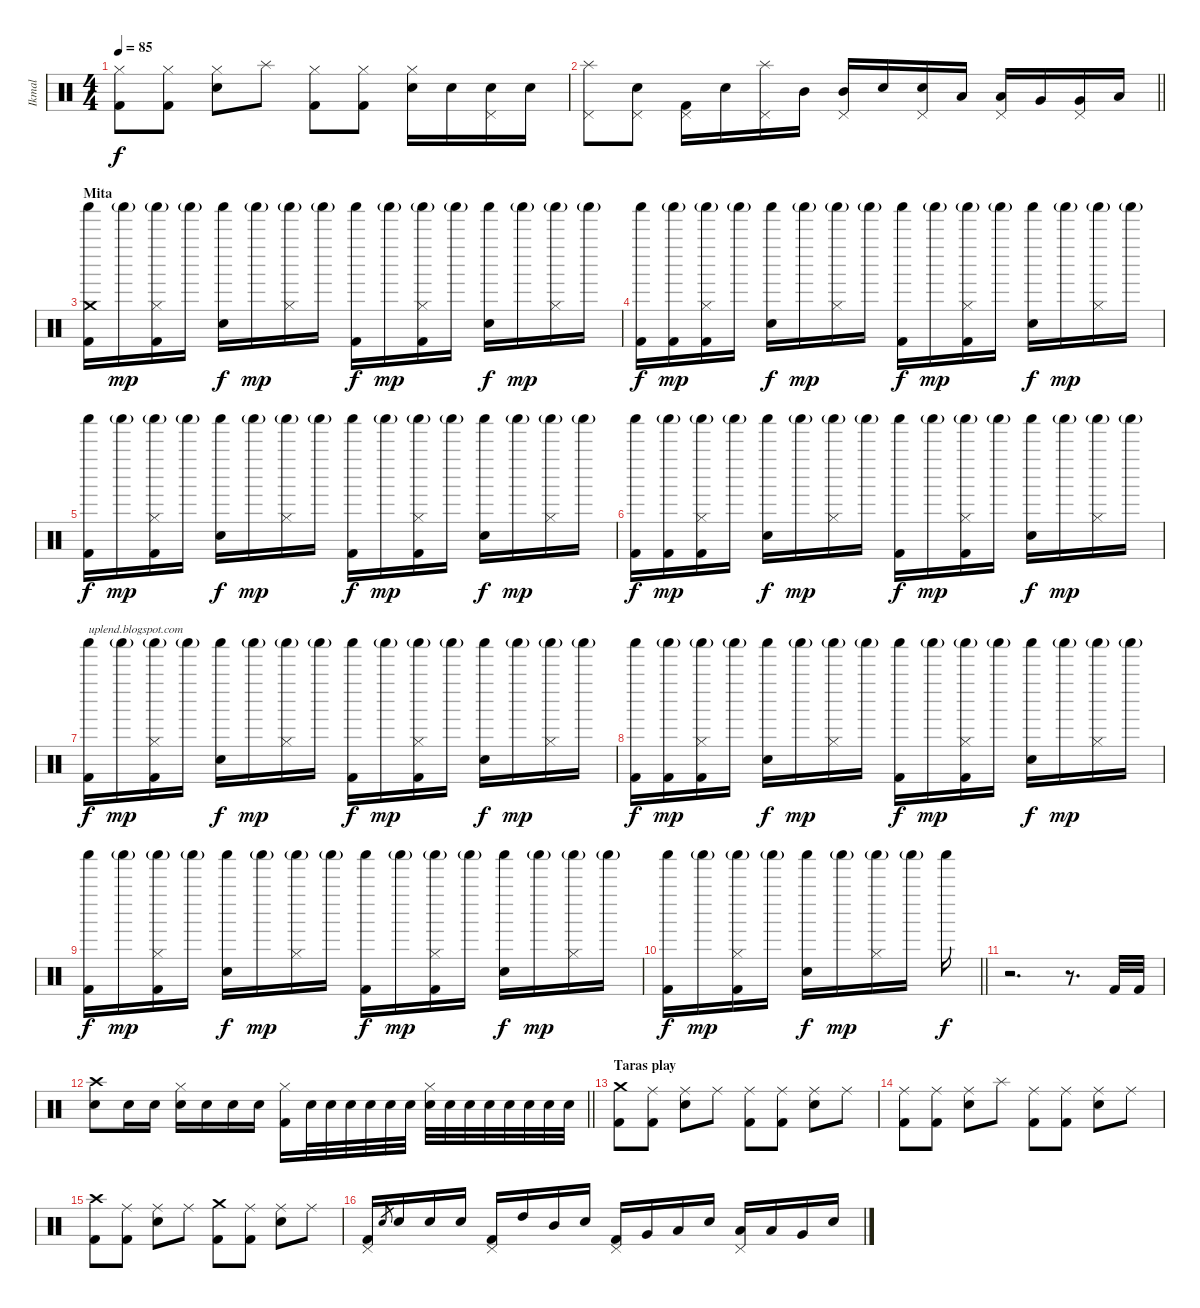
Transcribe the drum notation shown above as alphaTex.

\track ("Ikmal" "Ikmal") {instrument percussion}
\staff {score}
\articulation defaults
\ts (4 4)
\tempo 85
\clef neutral
\ks c
("Hi-Hat (closed)" "Kick (hit) 2").8{dy f} ("Hi-Hat (closed)" "Kick (hit) 2").8 ("Hi-Hat (closed)" "Electric Snare (hit)").8 "Splash (hit)".8 ("Hi-Hat (closed)" "Kick (hit) 2").8 ("Hi-Hat (closed)" "Kick (hit) 2").8 ("Hi-Hat (closed)" "Electric Snare (hit)").16 "Electric Snare (hit)".16 ("Pedal Hi-Hat (hit)" "Electric Snare (hit)").16 "Electric Snare (hit)".16 |
\barLineRight lightlight
("Pedal Hi-Hat (hit)" "Splash (hit)").8 ("Pedal Hi-Hat (hit)" "Electric Snare (hit)").8 ("Pedal Hi-Hat (hit)" "Kick (hit) 2").16 "Electric Snare (hit)".16 ("Pedal Hi-Hat (hit)" "Splash (hit)").16 "Mid Tom (hit)".16 ("Pedal Hi-Hat (hit)" "Mid Tom (hit)").16 "Electric Snare (hit)".16 ("Pedal Hi-Hat (hit)" "Electric Snare (hit)").16 "Low Tom (hit)".16 ("Pedal Hi-Hat (hit)" "Low Tom (hit)").16 "Very Low Tom (hit)".16 ("Pedal Hi-Hat (hit)" "Very Low Tom (hit)").16 "Low Floor Tom (hit)".16 |
\section ("" "Mita")
("Shaker (hit)" "Crash medium (hit)" "Kick (hit) 2").16 "Shaker (hit)"{g}.16{dy mp} ("Shaker (hit)"{g} "Hi-Hat (closed)" "Kick (hit) 2").16 "Shaker (hit)"{g}.16 ("Shaker (hit)" "Electric Snare (hit)").16{dy f} "Shaker (hit)"{g}.16{dy mp} ("Shaker (hit)"{g} "Hi-Hat (closed)").16 "Shaker (hit)"{g}.16 ("Shaker (hit)" "Kick (hit) 2").16{dy f} "Shaker (hit)"{g}.16{dy mp} ("Shaker (hit)"{g} "Hi-Hat (closed)" "Kick (hit) 2").16 "Shaker (hit)"{g}.16 ("Shaker (hit)" "Electric Snare (hit)").16{dy f} "Shaker (hit)"{g}.16{dy mp} ("Shaker (hit)"{g} "Hi-Hat (closed)").16 "Shaker (hit)"{g}.16 |
("Shaker (hit)" "Kick (hit) 2").16{dy f} ("Shaker (hit)"{g} "Kick (hit) 2").16{dy mp} ("Shaker (hit)"{g} "Hi-Hat (closed)" "Kick (hit) 2").16 "Shaker (hit)"{g}.16 ("Shaker (hit)" "Electric Snare (hit)").16{dy f} "Shaker (hit)"{g}.16{dy mp} ("Shaker (hit)"{g} "Hi-Hat (closed)").16 "Shaker (hit)"{g}.16 ("Shaker (hit)" "Kick (hit) 2").16{dy f} "Shaker (hit)"{g}.16{dy mp} ("Shaker (hit)"{g} "Hi-Hat (closed)" "Kick (hit) 2").16 "Shaker (hit)"{g}.16 ("Shaker (hit)" "Electric Snare (hit)").16{dy f} "Shaker (hit)"{g}.16{dy mp} ("Shaker (hit)"{g} "Hi-Hat (closed)").16 "Shaker (hit)"{g}.16 |
("Shaker (hit)" "Kick (hit) 2").16{dy f} "Shaker (hit)"{g}.16{dy mp} ("Shaker (hit)"{g} "Hi-Hat (closed)" "Kick (hit) 2").16 "Shaker (hit)"{g}.16 ("Shaker (hit)" "Electric Snare (hit)").16{dy f} "Shaker (hit)"{g}.16{dy mp} ("Shaker (hit)"{g} "Hi-Hat (closed)").16 "Shaker (hit)"{g}.16 ("Shaker (hit)" "Kick (hit) 2").16{dy f} "Shaker (hit)"{g}.16{dy mp} ("Shaker (hit)"{g} "Hi-Hat (closed)" "Kick (hit) 2").16 "Shaker (hit)"{g}.16 ("Shaker (hit)" "Electric Snare (hit)").16{dy f} "Shaker (hit)"{g}.16{dy mp} ("Shaker (hit)"{g} "Hi-Hat (closed)").16 "Shaker (hit)"{g}.16 |
("Shaker (hit)" "Kick (hit) 2").16{dy f} ("Shaker (hit)"{g} "Kick (hit) 2").16{dy mp} ("Shaker (hit)"{g} "Hi-Hat (closed)" "Kick (hit) 2").16 "Shaker (hit)"{g}.16 ("Shaker (hit)" "Electric Snare (hit)").16{dy f} "Shaker (hit)"{g}.16{dy mp} ("Shaker (hit)"{g} "Hi-Hat (closed)").16 "Shaker (hit)"{g}.16 ("Shaker (hit)" "Kick (hit) 2").16{dy f} "Shaker (hit)"{g}.16{dy mp} ("Shaker (hit)"{g} "Hi-Hat (closed)" "Kick (hit) 2").16 "Shaker (hit)"{g}.16 ("Shaker (hit)" "Electric Snare (hit)").16{dy f} "Shaker (hit)"{g}.16{dy mp} ("Shaker (hit)"{g} "Hi-Hat (closed)").16 "Shaker (hit)"{g}.16 |
("Shaker (hit)" "Kick (hit) 2").16{txt "uplend.blogspot.com" dy f} "Shaker (hit)"{g}.16{dy mp} ("Shaker (hit)"{g} "Hi-Hat (closed)" "Kick (hit) 2").16 "Shaker (hit)"{g}.16 ("Shaker (hit)" "Electric Snare (hit)").16{dy f} "Shaker (hit)"{g}.16{dy mp} ("Shaker (hit)"{g} "Hi-Hat (closed)").16 "Shaker (hit)"{g}.16 ("Shaker (hit)" "Kick (hit) 2").16{dy f} "Shaker (hit)"{g}.16{dy mp} ("Shaker (hit)"{g} "Hi-Hat (closed)" "Kick (hit) 2").16 "Shaker (hit)"{g}.16 ("Shaker (hit)" "Electric Snare (hit)").16{dy f} "Shaker (hit)"{g}.16{dy mp} ("Shaker (hit)"{g} "Hi-Hat (closed)").16 "Shaker (hit)"{g}.16 |
("Shaker (hit)" "Kick (hit) 2").16{dy f} ("Shaker (hit)"{g} "Kick (hit) 2").16{dy mp} ("Shaker (hit)"{g} "Hi-Hat (closed)" "Kick (hit) 2").16 "Shaker (hit)"{g}.16 ("Shaker (hit)" "Electric Snare (hit)").16{dy f} "Shaker (hit)"{g}.16{dy mp} ("Shaker (hit)"{g} "Hi-Hat (closed)").16 "Shaker (hit)"{g}.16 ("Shaker (hit)" "Kick (hit) 2").16{dy f} "Shaker (hit)"{g}.16{dy mp} ("Shaker (hit)"{g} "Hi-Hat (closed)" "Kick (hit) 2").16 "Shaker (hit)"{g}.16 ("Shaker (hit)" "Electric Snare (hit)").16{dy f} "Shaker (hit)"{g}.16{dy mp} ("Shaker (hit)"{g} "Hi-Hat (closed)").16 "Shaker (hit)"{g}.16 |
("Shaker (hit)" "Kick (hit) 2").16{dy f} "Shaker (hit)"{g}.16{dy mp} ("Shaker (hit)"{g} "Hi-Hat (closed)" "Kick (hit) 2").16 "Shaker (hit)"{g}.16 ("Shaker (hit)" "Electric Snare (hit)").16{dy f} "Shaker (hit)"{g}.16{dy mp} ("Shaker (hit)"{g} "Hi-Hat (closed)").16 "Shaker (hit)"{g}.16 ("Shaker (hit)" "Kick (hit) 2").16{dy f} "Shaker (hit)"{g}.16{dy mp} ("Shaker (hit)"{g} "Hi-Hat (closed)" "Kick (hit) 2").16 "Shaker (hit)"{g}.16 ("Shaker (hit)" "Electric Snare (hit)").16{dy f} "Shaker (hit)"{g}.16{dy mp} ("Shaker (hit)"{g} "Hi-Hat (closed)").16 "Shaker (hit)"{g}.16 |
\barLineRight lightlight
("Shaker (hit)" "Kick (hit) 2").16{dy f} "Shaker (hit)"{g}.16{dy mp} ("Shaker (hit)"{g} "Hi-Hat (closed)" "Kick (hit) 2").16 "Shaker (hit)"{g}.16 ("Shaker (hit)" "Electric Snare (hit)").16{dy f} "Shaker (hit)"{g}.16{dy mp} ("Shaker (hit)"{g} "Hi-Hat (closed)").16 "Shaker (hit)"{g}.16 "Shaker (hit)".16{dy f} |
r.2{d} r.8{d} "Kick (hit) 2".32 "Kick (hit) 2".32 |
\barLineRight lightlight
("Crash high (hit)" "Electric Snare (hit)").8 "Electric Snare (hit)".16 "Electric Snare (hit)".16 ("Hi-Hat (closed)" "Electric Snare (hit)").16 "Electric Snare (hit)".16 "Electric Snare (hit)".16 "Electric Snare (hit)".16 ("Hi-Hat (closed)" "Kick (hit) 2").16 "Electric Snare (hit)".32 "Electric Snare (hit)".32 "Electric Snare (hit)".32 "Electric Snare (hit)".32 "Electric Snare (hit)".32 "Electric Snare (hit)".32 ("Hi-Hat (closed)" "Electric Snare (hit)").32 "Electric Snare (hit)".32 "Electric Snare (hit)".32 "Electric Snare (hit)".32 "Electric Snare (hit)".32 "Electric Snare (hit)".32 "Electric Snare (hit)".32 "Electric Snare (hit)".32 |
\section ("" "Taras play")
("Crash medium (hit)" "Kick (hit) 2").8 ("Ride (middle)" "Kick (hit) 2").8 ("Ride (middle)" "Electric Snare (hit)").8 "Ride (middle)".8 ("Ride (middle)" "Kick (hit) 2").8 ("Ride (middle)" "Kick (hit) 2").8 ("Ride (middle)" "Electric Snare (hit)").8 "Ride (middle)".8 |
("Ride (middle)" "Kick (hit) 2").8 ("Ride (middle)" "Kick (hit) 2").8 ("Ride (middle)" "Electric Snare (hit)").8 "Splash (hit)".8 ("Ride (middle)" "Kick (hit) 2").8 ("Ride (middle)" "Kick (hit) 2").8 ("Ride (middle)" "Electric Snare (hit)").8 "Ride (middle)".8 |
("Crash high (hit)" "Kick (hit) 2").8 ("Ride (middle)" "Kick (hit) 2").8 ("Ride (middle)" "Electric Snare (hit)").8 "Ride (middle)".8 ("Crash medium (hit)" "Kick (hit) 2").8 ("Ride (middle)" "Kick (hit) 2").8 ("Ride (middle)" "Electric Snare (hit)").8 "Ride (middle)".8 |
("Pedal Hi-Hat (hit)" "Kick (hit) 2").16 "Electric Snare (hit)".8{gr} "Electric Snare (hit)".16 "Electric Snare (hit)".16 "Electric Snare (hit)".16 ("Pedal Hi-Hat (hit)" "Kick (hit) 2").16 "High Tom (hit)".16 "Mid Tom (hit)".16 "Electric Snare (hit)".16 ("Pedal Hi-Hat (hit)" "Kick (hit) 2").16 "Very Low Tom (hit)".16 "Low Tom (hit)".16 "Electric Snare (hit)".16 ("Pedal Hi-Hat (hit)" "Low Tom (hit)").16 "Low Floor Tom (hit)".16 "Very Low Tom (hit)".16 "Electric Snare (hit)".16
